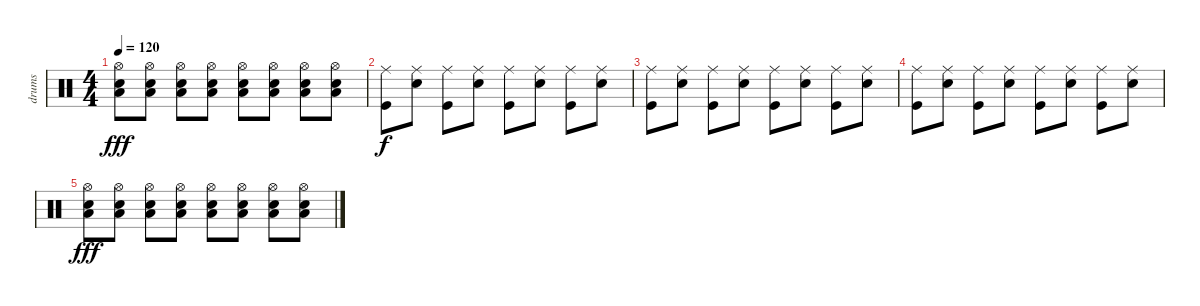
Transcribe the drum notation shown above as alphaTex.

\track ("drums" "drums") {instrument percussion}
\staff {score}
\articulation defaults
\ts (4 4)
\tempo 120
\clef neutral
\ks c
("Hi-Hat (open)" "Low Floor Tom (hit)" "Snare (hit) 2").8{dy fff} ("Hi-Hat (open)" "Low Floor Tom (hit)" "Snare (hit) 2").8 ("Hi-Hat (open)" "Low Floor Tom (hit)" "Snare (hit) 2").8 ("Hi-Hat (open)" "Low Floor Tom (hit)" "Snare (hit) 2").8 ("Hi-Hat (open)" "Low Floor Tom (hit)" "Snare (hit) 2").8 ("Hi-Hat (open)" "Low Floor Tom (hit)" "Snare (hit) 2").8 ("Hi-Hat (open)" "Low Floor Tom (hit)" "Snare (hit) 2").8 ("Hi-Hat (open)" "Low Floor Tom (hit)" "Snare (hit) 2").8 |
("Ride (middle)" "Kick (hit)").8{dy f} ("Ride (middle)" "Snare (hit) 2").8 ("Ride (middle)" "Kick (hit)").8 ("Ride (middle)" "Snare (hit) 2").8 ("Ride (middle)" "Kick (hit)").8 ("Ride (middle)" "Snare (hit) 2").8 ("Ride (middle)" "Kick (hit)").8 ("Ride (middle)" "Snare (hit) 2").8 |
("Ride (middle)" "Kick (hit)").8 ("Ride (middle)" "Snare (hit) 2").8 ("Ride (middle)" "Kick (hit)").8 ("Ride (middle)" "Snare (hit) 2").8 ("Ride (middle)" "Kick (hit)").8 ("Ride (middle)" "Snare (hit) 2").8 ("Ride (middle)" "Kick (hit)").8 ("Ride (middle)" "Snare (hit) 2").8 |
("Ride (middle)" "Kick (hit)").8 ("Ride (middle)" "Snare (hit) 2").8 ("Ride (middle)" "Kick (hit)").8 ("Ride (middle)" "Snare (hit) 2").8 ("Ride (middle)" "Kick (hit)").8 ("Ride (middle)" "Snare (hit) 2").8 ("Ride (middle)" "Kick (hit)").8 ("Ride (middle)" "Snare (hit) 2").8 |
("Hi-Hat (open)" "Low Floor Tom (hit)" "Snare (hit) 2").8{dy fff} ("Hi-Hat (open)" "Low Floor Tom (hit)" "Snare (hit) 2").8 ("Hi-Hat (open)" "Low Floor Tom (hit)" "Snare (hit) 2").8 ("Hi-Hat (open)" "Low Floor Tom (hit)" "Snare (hit) 2").8 ("Hi-Hat (open)" "Low Floor Tom (hit)" "Snare (hit) 2").8 ("Hi-Hat (open)" "Low Floor Tom (hit)" "Snare (hit) 2").8 ("Hi-Hat (open)" "Low Floor Tom (hit)" "Snare (hit) 2").8 ("Hi-Hat (open)" "Low Floor Tom (hit)" "Snare (hit) 2").8
